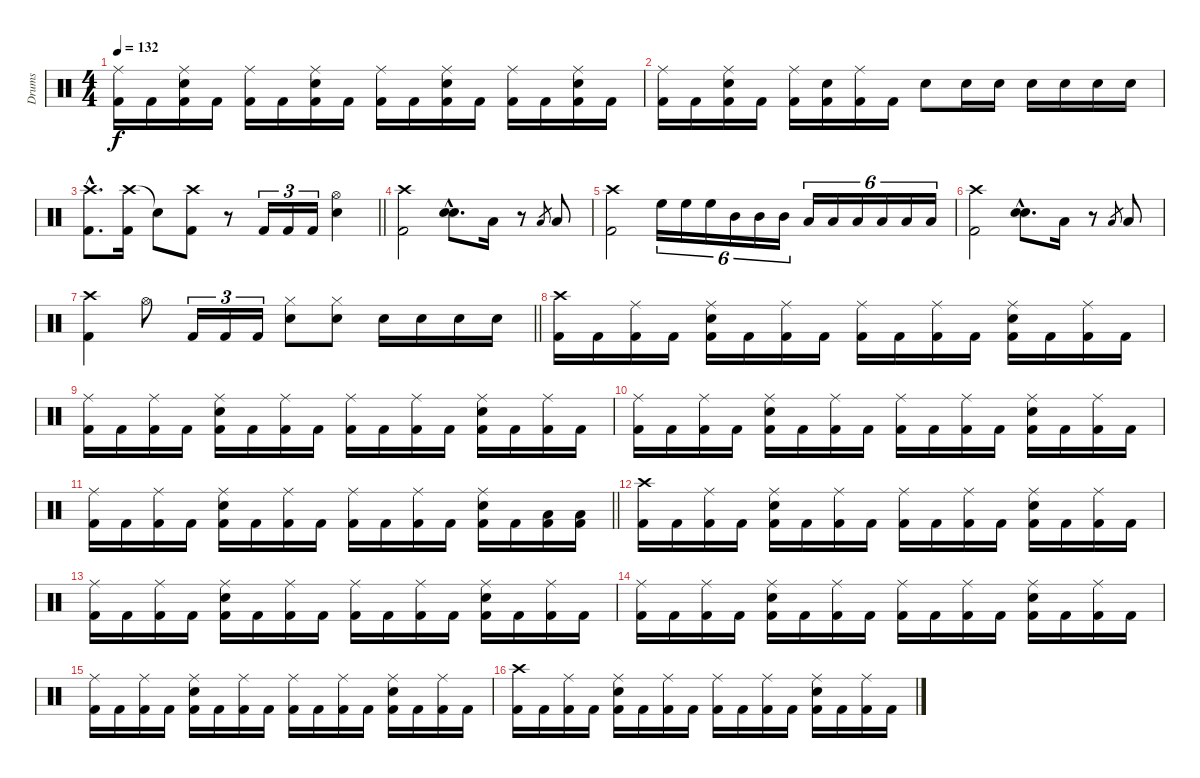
\track ("Drums" "Drums") {instrument percussion}
\staff {score}
\articulation defaults
\ts (4 4)
\tempo 132
\clef neutral
\ks c
("Ride (middle)" "Kick (hit) 2").16{dy f} "Kick (hit) 2".16 ("Ride (middle)" "Snare (hit) 2" "Kick (hit) 2").16 "Kick (hit) 2".16 ("Ride (middle)" "Kick (hit) 2").16 "Kick (hit) 2".16 ("Ride (middle)" "Snare (hit) 2" "Kick (hit) 2").16 "Kick (hit) 2".16 ("Ride (middle)" "Kick (hit) 2").16 "Kick (hit) 2".16 ("Ride (middle)" "Snare (hit) 2" "Kick (hit) 2").16 "Kick (hit) 2".16 ("Ride (middle)" "Kick (hit) 2").16 "Kick (hit) 2".16 ("Ride (middle)" "Snare (hit) 2" "Kick (hit) 2").16 "Kick (hit) 2".16 |
("Ride (middle)" "Kick (hit) 2").16 "Kick (hit) 2".16 ("Ride (middle)" "Snare (hit) 2" "Kick (hit) 2").16 "Kick (hit) 2".16 ("Ride (middle)" "Kick (hit) 2").16 ("Snare (hit) 2" "Kick (hit) 2").16 ("Ride (middle)" "Kick (hit) 2").16 "Kick (hit) 2".16 "Snare (hit) 2".8 "Snare (hit) 2".16 "Snare (hit) 2".16 "Snare (hit) 2".16 "Snare (hit) 2".16 "Snare (hit) 2".16 "Snare (hit) 2".16 |
\barLineRight lightlight
("Crash high (hit)"{hac} "Kick (hit) 2"{hac}).8{d} ("Crash high (hit)" "Kick (hit) 2").16 "Snare (hit)"{t}.8 ("Crash high (hit)" "Kick (hit) 2").8 r.8 "Kick (hit) 2".16{tu (3 2)} "Kick (hit) 2".16{tu (3 2)} "Kick (hit) 2".16{tu (3 2)} ("Hi-Hat (open)" "Snare (hit) 2").4 |
("Crash high (hit)" "Kick (hit) 2").2 ("Snare (hit) 2"{hac} "Snare (hit) 2"{hac}).8{d} "Low Tom (hit)".16 r.8 "Low Floor Tom (hit)".8{gr} "Low Floor Tom (hit)".8 |
("Crash high (hit)" "Kick (hit) 2").2 "High Floor Tom (hit)".16{tu (6 4)} "High Floor Tom (hit)".16{tu (6 4)} "High Floor Tom (hit)".16{tu (6 4)} "Mid Tom (hit)".16{tu (6 4)} "Mid Tom (hit)".16{tu (6 4)} "Mid Tom (hit)".16{tu (6 4)} "Low Tom (hit)".16{tu (6 4)} "Low Tom (hit)".16{tu (6 4)} "Low Tom (hit)".16{tu (6 4)} "Low Floor Tom (hit)".16{tu (6 4)} "Low Floor Tom (hit)".16{tu (6 4)} "Low Floor Tom (hit)".16{tu (6 4)} |
("Crash high (hit)" "Kick (hit) 2").2 ("Snare (hit) 2"{hac} "Snare (hit) 2"{hac}).8{d} "Low Tom (hit)".16 r.8 "Low Floor Tom (hit)".8{gr} "Low Floor Tom (hit)".8 |
\barLineRight lightlight
("Crash high (hit)" "Kick (hit) 2").4 "Hi-Hat (open)".8 "Kick (hit) 2".16{tu (3 2)} "Kick (hit) 2".16{tu (3 2)} "Kick (hit) 2".16{tu (3 2)} ("Hi-Hat (closed)" "Snare (hit) 2").8 ("Hi-Hat (closed)" "Snare (hit) 2").8 "Snare (hit) 2".16 "Snare (hit) 2".16 "Snare (hit) 2".16 "Snare (hit) 2".16 |
("Crash high (hit)" "Kick (hit) 2").16 "Kick (hit) 2".16 ("Ride (middle)" "Kick (hit) 2").16 "Kick (hit) 2".16 ("Ride (middle)" "Snare (hit) 2" "Kick (hit) 2").16 "Kick (hit) 2".16 ("Ride (middle)" "Kick (hit) 2").16 "Kick (hit) 2".16 ("Ride (middle)" "Kick (hit) 2").16 "Kick (hit) 2".16 ("Ride (middle)" "Kick (hit) 2").16 "Kick (hit) 2".16 ("Ride (middle)" "Snare (hit) 2" "Kick (hit) 2").16 "Kick (hit) 2".16 ("Ride (middle)" "Kick (hit) 2").16 "Kick (hit) 2".16 |
("Ride (middle)" "Kick (hit) 2").16 "Kick (hit) 2".16 ("Ride (middle)" "Kick (hit) 2").16 "Kick (hit) 2".16 ("Ride (middle)" "Snare (hit) 2" "Kick (hit) 2").16 "Kick (hit) 2".16 ("Ride (middle)" "Kick (hit) 2").16 "Kick (hit) 2".16 ("Ride (middle)" "Kick (hit) 2").16 "Kick (hit) 2".16 ("Ride (middle)" "Kick (hit) 2").16 "Kick (hit) 2".16 ("Ride (middle)" "Snare (hit) 2" "Kick (hit) 2").16 "Kick (hit) 2".16 ("Ride (middle)" "Kick (hit) 2").16 "Kick (hit) 2".16 |
("Ride (middle)" "Kick (hit) 2").16 "Kick (hit) 2".16 ("Ride (middle)" "Kick (hit) 2").16 "Kick (hit) 2".16 ("Ride (middle)" "Snare (hit) 2" "Kick (hit) 2").16 "Kick (hit) 2".16 ("Ride (middle)" "Kick (hit) 2").16 "Kick (hit) 2".16 ("Ride (middle)" "Kick (hit) 2").16 "Kick (hit) 2".16 ("Ride (middle)" "Kick (hit) 2").16 "Kick (hit) 2".16 ("Ride (middle)" "Snare (hit) 2" "Kick (hit) 2").16 "Kick (hit) 2".16 ("Ride (middle)" "Kick (hit) 2").16 "Kick (hit) 2".16 |
\barLineRight lightlight
("Ride (middle)" "Kick (hit) 2").16 "Kick (hit) 2".16 ("Ride (middle)" "Kick (hit) 2").16 "Kick (hit) 2".16 ("Ride (middle)" "Snare (hit) 2" "Kick (hit) 2").16 "Kick (hit) 2".16 ("Ride (middle)" "Kick (hit) 2").16 "Kick (hit) 2".16 ("Ride (middle)" "Kick (hit) 2").16 "Kick (hit) 2".16 ("Ride (middle)" "Kick (hit) 2").16 "Kick (hit) 2".16 ("Ride (middle)" "Snare (hit) 2" "Kick (hit) 2").16 "Kick (hit) 2".16 ("Low Tom (hit)" "Kick (hit) 2").16 ("Low Tom (hit)" "Kick (hit) 2").16 |
("Crash high (hit)" "Kick (hit) 2").16 "Kick (hit) 2".16 ("Ride (middle)" "Kick (hit) 2").16 "Kick (hit) 2".16 ("Ride (middle)" "Snare (hit) 2" "Kick (hit) 2").16 "Kick (hit) 2".16 ("Ride (middle)" "Kick (hit) 2").16 "Kick (hit) 2".16 ("Ride (middle)" "Kick (hit) 2").16 "Kick (hit) 2".16 ("Ride (middle)" "Kick (hit) 2").16 "Kick (hit) 2".16 ("Ride (middle)" "Snare (hit) 2" "Kick (hit) 2").16 "Kick (hit) 2".16 ("Ride (middle)" "Kick (hit) 2").16 "Kick (hit) 2".16 |
("Ride (middle)" "Kick (hit) 2").16 "Kick (hit) 2".16 ("Ride (middle)" "Kick (hit) 2").16 "Kick (hit) 2".16 ("Ride (middle)" "Snare (hit) 2" "Kick (hit) 2").16 "Kick (hit) 2".16 ("Ride (middle)" "Kick (hit) 2").16 "Kick (hit) 2".16 ("Ride (middle)" "Kick (hit) 2").16 "Kick (hit) 2".16 ("Ride (middle)" "Kick (hit) 2").16 "Kick (hit) 2".16 ("Ride (middle)" "Snare (hit) 2" "Kick (hit) 2").16 "Kick (hit) 2".16 ("Ride (middle)" "Kick (hit) 2").16 "Kick (hit) 2".16 |
("Ride (middle)" "Kick (hit) 2").16 "Kick (hit) 2".16 ("Ride (middle)" "Kick (hit) 2").16 "Kick (hit) 2".16 ("Ride (middle)" "Snare (hit) 2" "Kick (hit) 2").16 "Kick (hit) 2".16 ("Ride (middle)" "Kick (hit) 2").16 "Kick (hit) 2".16 ("Ride (middle)" "Kick (hit) 2").16 "Kick (hit) 2".16 ("Ride (middle)" "Kick (hit) 2").16 "Kick (hit) 2".16 ("Ride (middle)" "Snare (hit) 2" "Kick (hit) 2").16 "Kick (hit) 2".16 ("Ride (middle)" "Kick (hit) 2").16 "Kick (hit) 2".16 |
("Ride (middle)" "Kick (hit) 2").16 "Kick (hit) 2".16 ("Ride (middle)" "Kick (hit) 2").16 "Kick (hit) 2".16 ("Ride (middle)" "Snare (hit) 2" "Kick (hit) 2").16 "Kick (hit) 2".16 ("Ride (middle)" "Kick (hit) 2").16 "Kick (hit) 2".16 ("Ride (middle)" "Kick (hit) 2").16 "Kick (hit) 2".16 ("Ride (middle)" "Kick (hit) 2").16 "Kick (hit) 2".16 ("Ride (middle)" "Snare (hit) 2" "Kick (hit) 2").16 "Kick (hit) 2".16 ("Ride (middle)" "Kick (hit) 2").16 "Kick (hit) 2".16 |
("Crash high (hit)" "Kick (hit) 2").16 "Kick (hit) 2".16 ("Ride (middle)" "Kick (hit) 2").16 "Kick (hit) 2".16 ("Ride (middle)" "Snare (hit) 2" "Kick (hit) 2").16 "Kick (hit) 2".16 ("Ride (middle)" "Kick (hit) 2").16 "Kick (hit) 2".16 ("Ride (middle)" "Kick (hit) 2").16 "Kick (hit) 2".16 ("Ride (middle)" "Kick (hit) 2").16 "Kick (hit) 2".16 ("Ride (middle)" "Snare (hit) 2" "Kick (hit) 2").16 "Kick (hit) 2".16 ("Ride (middle)" "Kick (hit) 2").16 "Kick (hit) 2".16
